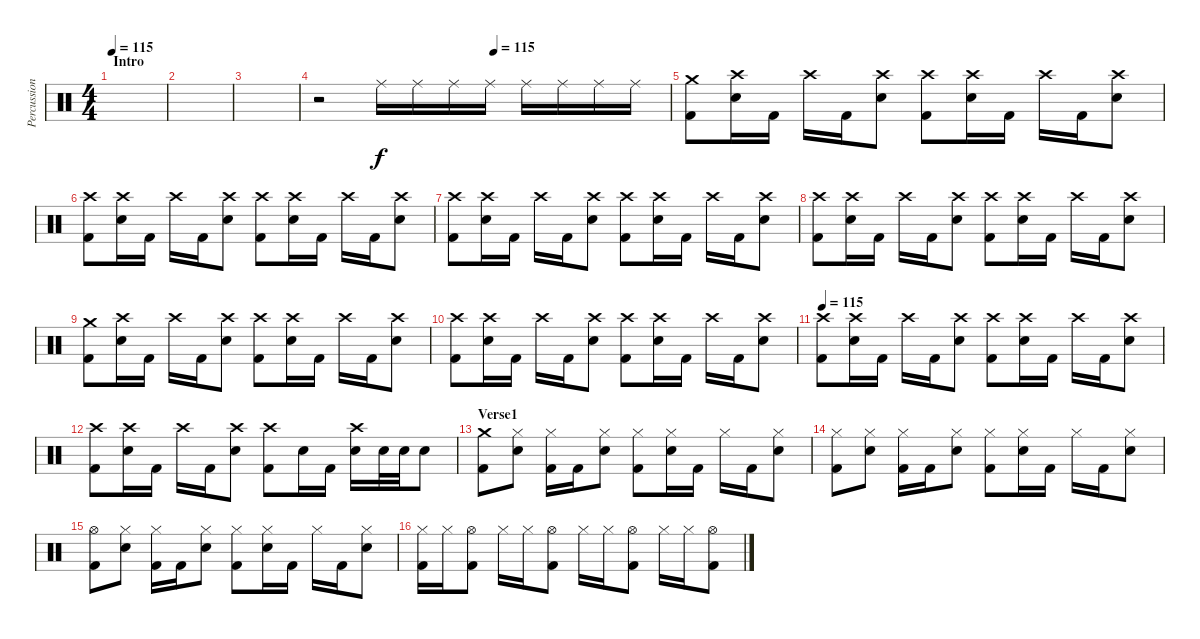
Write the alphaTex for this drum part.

\track ("Percussion" "Percussion") {instrument percussion}
\staff {score}
\articulation defaults
\ts (4 4)
\section ("" "Intro")
\tempo 115
\tempo 100
\tempo 115
\clef neutral
\ks c
|
|
|
\tempo (115 0.5)
r.2 "Ride (middle)".16 "Ride (middle)".16 "Ride (middle)".16 "Ride (middle)".16 "Ride (middle)".16 "Ride (middle)".16 "Ride (middle)".16 "Ride (middle)".16 |
("Crash medium (hit)" "Kick (hit) 2").8 ("Crash high (hit)" "Electric Snare (hit)").16 "Kick (hit) 2".16 "Crash high (hit)".16 "Kick (hit) 2".16 ("Crash high (hit)" "Electric Snare (hit)").8 ("Crash high (hit)" "Kick (hit) 2").8 ("Crash high (hit)" "Electric Snare (hit)").16 "Kick (hit) 2".16 "Crash high (hit)".16 "Kick (hit) 2".16 ("Crash high (hit)" "Electric Snare (hit)").8 |
("Crash high (hit)" "Kick (hit) 2").8 ("Crash high (hit)" "Electric Snare (hit)").16 "Kick (hit) 2".16 "Crash high (hit)".16 "Kick (hit) 2".16 ("Crash high (hit)" "Electric Snare (hit)").8 ("Crash high (hit)" "Kick (hit) 2").8 ("Crash high (hit)" "Electric Snare (hit)").16 "Kick (hit) 2".16 "Crash high (hit)".16 "Kick (hit) 2".16 ("Crash high (hit)" "Electric Snare (hit)").8 |
("Crash high (hit)" "Kick (hit) 2").8 ("Crash high (hit)" "Electric Snare (hit)").16 "Kick (hit) 2".16 "Crash high (hit)".16 "Kick (hit) 2".16 ("Crash high (hit)" "Electric Snare (hit)").8 ("Crash high (hit)" "Kick (hit) 2").8 ("Crash high (hit)" "Electric Snare (hit)").16 "Kick (hit) 2".16 "Crash high (hit)".16 "Kick (hit) 2".16 ("Crash high (hit)" "Electric Snare (hit)").8 |
("Crash high (hit)" "Kick (hit) 2").8 ("Crash high (hit)" "Electric Snare (hit)").16 "Kick (hit) 2".16 "Crash high (hit)".16 "Kick (hit) 2".16 ("Crash high (hit)" "Electric Snare (hit)").8 ("Crash high (hit)" "Kick (hit) 2").8 ("Crash high (hit)" "Electric Snare (hit)").16 "Kick (hit) 2".16 "Crash high (hit)".16 "Kick (hit) 2".16 ("Crash high (hit)" "Electric Snare (hit)").8 |
("Crash medium (hit)" "Kick (hit) 2").8 ("Crash high (hit)" "Electric Snare (hit)").16 "Kick (hit) 2".16 "Crash high (hit)".16 "Kick (hit) 2".16 ("Crash high (hit)" "Electric Snare (hit)").8 ("Crash high (hit)" "Kick (hit) 2").8 ("Crash high (hit)" "Electric Snare (hit)").16 "Kick (hit) 2".16 "Crash high (hit)".16 "Kick (hit) 2".16 ("Crash high (hit)" "Electric Snare (hit)").8 |
("Crash high (hit)" "Kick (hit) 2").8 ("Crash high (hit)" "Electric Snare (hit)").16 "Kick (hit) 2".16 "Crash high (hit)".16 "Kick (hit) 2".16 ("Crash high (hit)" "Electric Snare (hit)").8 ("Crash high (hit)" "Kick (hit) 2").8 ("Crash high (hit)" "Electric Snare (hit)").16 "Kick (hit) 2".16 "Crash high (hit)".16 "Kick (hit) 2".16 ("Crash high (hit)" "Electric Snare (hit)").8 |
\tempo 115
("Crash high (hit)" "Kick (hit) 2").8 ("Crash high (hit)" "Electric Snare (hit)").16 "Kick (hit) 2".16 "Crash high (hit)".16 "Kick (hit) 2".16 ("Crash high (hit)" "Electric Snare (hit)").8 ("Crash high (hit)" "Kick (hit) 2").8 ("Crash high (hit)" "Electric Snare (hit)").16 "Kick (hit) 2".16 "Crash high (hit)".16 "Kick (hit) 2".16 ("Crash high (hit)" "Electric Snare (hit)").8 |
("Crash high (hit)" "Kick (hit) 2").8 ("Crash high (hit)" "Electric Snare (hit)").16 "Kick (hit) 2".16 "Crash high (hit)".16 "Kick (hit) 2".16 ("Crash high (hit)" "Electric Snare (hit)").8 ("Crash high (hit)" "Kick (hit) 2").8 "Electric Snare (hit)".16 "Kick (hit) 2".16 ("Crash high (hit)" "Electric Snare (hit)").16 "Electric Snare (hit)".32 "Electric Snare (hit)".32 "Electric Snare (hit)".8 |
\section ("" "Verse1")
("Crash medium (hit)" "Kick (hit) 2").8 ("Hi-Hat (closed)" "Electric Snare (hit)").8 ("Hi-Hat (closed)" "Kick (hit) 2").16 "Kick (hit) 2".16 ("Hi-Hat (closed)" "Electric Snare (hit)").8 ("Hi-Hat (closed)" "Kick (hit) 2").8 ("Hi-Hat (closed)" "Electric Snare (hit)").16 "Kick (hit) 2".16 "Hi-Hat (closed)".16 "Kick (hit) 2".16 ("Hi-Hat (closed)" "Electric Snare (hit)").8 |
("Hi-Hat (closed)" "Kick (hit) 2").8 ("Hi-Hat (closed)" "Electric Snare (hit)").8 ("Hi-Hat (closed)" "Kick (hit) 2").16 "Kick (hit) 2".16 ("Hi-Hat (closed)" "Electric Snare (hit)").8 ("Hi-Hat (closed)" "Kick (hit) 2").8 ("Hi-Hat (closed)" "Electric Snare (hit)").16 "Kick (hit) 2".16 "Hi-Hat (closed)".16 "Kick (hit) 2".16 ("Hi-Hat (closed)" "Electric Snare (hit)").8 |
("Hi-Hat (open)" "Kick (hit) 2").8 ("Hi-Hat (closed)" "Electric Snare (hit)").8 ("Hi-Hat (closed)" "Kick (hit) 2").16 "Kick (hit) 2".16 ("Hi-Hat (closed)" "Electric Snare (hit)").8 ("Hi-Hat (closed)" "Kick (hit) 2").8 ("Hi-Hat (closed)" "Electric Snare (hit)").16 "Kick (hit) 2".16 "Hi-Hat (closed)".16 "Kick (hit) 2".16 ("Hi-Hat (closed)" "Electric Snare (hit)").8 |
("Hi-Hat (closed)" "Kick (hit) 2").16 "Hi-Hat (closed)".16 ("Hi-Hat (open)" "Kick (hit) 2").8 "Hi-Hat (closed)".16 "Hi-Hat (closed)".16 ("Hi-Hat (open)" "Kick (hit) 2").8 "Hi-Hat (closed)".16 "Hi-Hat (closed)".16 ("Hi-Hat (open)" "Kick (hit) 2").8 "Hi-Hat (closed)".16 "Hi-Hat (closed)".16 ("Hi-Hat (open)" "Kick (hit) 2").8
